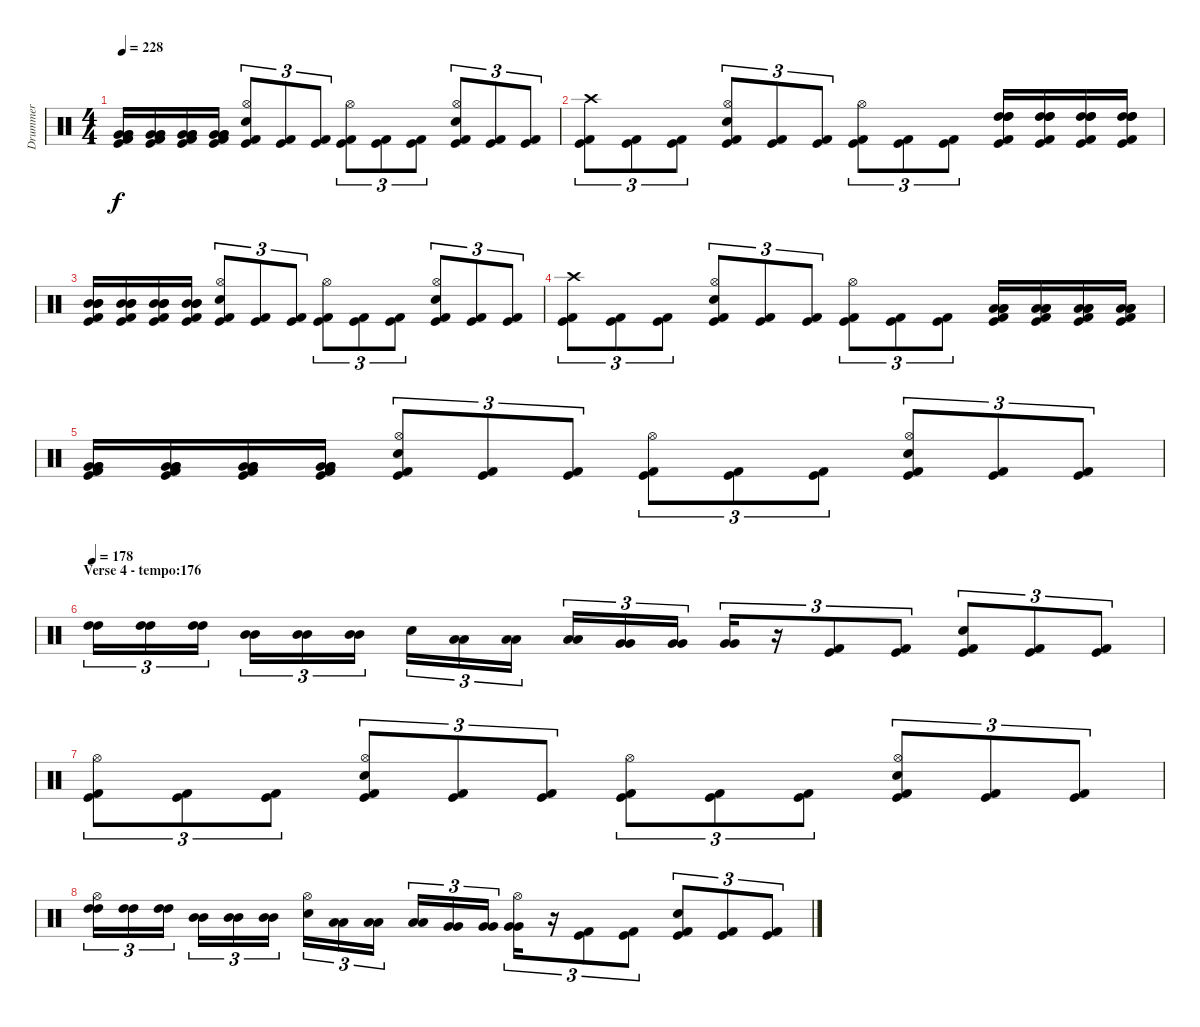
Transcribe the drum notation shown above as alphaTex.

\track ("Drummer" "Drummer") {instrument percussion}
\staff {score}
\articulation defaults
\ts (4 4)
\tempo 228
\clef neutral
\ks c
("Very Low Tom (hit)" "Very Low Tom (hit)" "Very Low Tom (hit)" "Kick (hit)" "Kick (hit) 2").16{dy f} ("Very Low Tom (hit)" "Very Low Tom (hit)" "Very Low Tom (hit)" "Kick (hit)" "Kick (hit) 2").16 ("Very Low Tom (hit)" "Very Low Tom (hit)" "Very Low Tom (hit)" "Kick (hit)" "Kick (hit) 2").16 ("Very Low Tom (hit)" "Very Low Tom (hit)" "Very Low Tom (hit)" "Kick (hit)" "Kick (hit) 2").16 ("Hi-Hat (open)" "Snare (hit) 2" "Kick (hit)" "Kick (hit) 2").8{tu (3 2)} ("Kick (hit)" "Kick (hit) 2").8{tu (3 2)} ("Kick (hit)" "Kick (hit) 2").8{tu (3 2)} ("Hi-Hat (open)" "Kick (hit)" "Kick (hit) 2").8{tu (3 2)} ("Kick (hit)" "Kick (hit) 2").8{tu (3 2)} ("Kick (hit)" "Kick (hit) 2").8{tu (3 2)} ("Hi-Hat (open)" "Snare (hit) 2" "Kick (hit)" "Kick (hit) 2").8{tu (3 2)} ("Kick (hit)" "Kick (hit) 2").8{tu (3 2)} ("Kick (hit)" "Kick (hit) 2").8{tu (3 2)} |
("Crash high (hit)" "Kick (hit)" "Kick (hit) 2").8{tu (3 2)} ("Kick (hit)" "Kick (hit) 2").8{tu (3 2)} ("Kick (hit)" "Kick (hit) 2").8{tu (3 2)} ("Hi-Hat (open)" "Snare (hit) 2" "Kick (hit)" "Kick (hit) 2").8{tu (3 2)} ("Kick (hit)" "Kick (hit) 2").8{tu (3 2)} ("Kick (hit)" "Kick (hit) 2").8{tu (3 2)} ("Hi-Hat (open)" "Kick (hit)" "Kick (hit) 2").8{tu (3 2)} ("Kick (hit)" "Kick (hit) 2").8{tu (3 2)} ("Kick (hit)" "Kick (hit) 2").8{tu (3 2)} ("High Tom (hit)" "High Tom (hit)" "High Tom (hit)" "Kick (hit)" "Kick (hit) 2").16 ("High Tom (hit)" "High Tom (hit)" "High Tom (hit)" "Kick (hit)" "Kick (hit) 2").16 ("High Tom (hit)" "High Tom (hit)" "High Tom (hit)" "Kick (hit)" "Kick (hit) 2").16 ("High Tom (hit)" "High Tom (hit)" "High Tom (hit)" "Kick (hit)" "Kick (hit) 2").16 |
("Mid Tom (hit)" "Mid Tom (hit)" "Mid Tom (hit)" "Kick (hit)" "Kick (hit) 2").16 ("Mid Tom (hit)" "Mid Tom (hit)" "Mid Tom (hit)" "Kick (hit)" "Kick (hit) 2").16 ("Mid Tom (hit)" "Mid Tom (hit)" "Mid Tom (hit)" "Kick (hit)" "Kick (hit) 2").16 ("Mid Tom (hit)" "Mid Tom (hit)" "Mid Tom (hit)" "Kick (hit)" "Kick (hit) 2").16 ("Hi-Hat (open)" "Snare (hit) 2" "Kick (hit)" "Kick (hit) 2").8{tu (3 2)} ("Kick (hit)" "Kick (hit) 2").8{tu (3 2)} ("Kick (hit)" "Kick (hit) 2").8{tu (3 2)} ("Hi-Hat (open)" "Kick (hit)" "Kick (hit) 2").8{tu (3 2)} ("Kick (hit)" "Kick (hit) 2").8{tu (3 2)} ("Kick (hit)" "Kick (hit) 2").8{tu (3 2)} ("Hi-Hat (open)" "Snare (hit) 2" "Kick (hit)" "Kick (hit) 2").8{tu (3 2)} ("Kick (hit)" "Kick (hit) 2").8{tu (3 2)} ("Kick (hit)" "Kick (hit) 2").8{tu (3 2)} |
("Crash high (hit)" "Kick (hit)" "Kick (hit) 2").8{tu (3 2)} ("Kick (hit)" "Kick (hit) 2").8{tu (3 2)} ("Kick (hit)" "Kick (hit) 2").8{tu (3 2)} ("Hi-Hat (open)" "Snare (hit) 2" "Kick (hit)" "Kick (hit) 2").8{tu (3 2)} ("Kick (hit)" "Kick (hit) 2").8{tu (3 2)} ("Kick (hit)" "Kick (hit) 2").8{tu (3 2)} ("Hi-Hat (open)" "Kick (hit)" "Kick (hit) 2").8{tu (3 2)} ("Kick (hit)" "Kick (hit) 2").8{tu (3 2)} ("Kick (hit)" "Kick (hit) 2").8{tu (3 2)} ("Low Tom (hit)" "Low Tom (hit)" "Low Tom (hit)" "Kick (hit)" "Kick (hit) 2").16 ("Low Tom (hit)" "Low Tom (hit)" "Low Tom (hit)" "Kick (hit)" "Kick (hit) 2").16 ("Low Tom (hit)" "Low Tom (hit)" "Low Tom (hit)" "Kick (hit)" "Kick (hit) 2").16 ("Low Tom (hit)" "Low Tom (hit)" "Low Tom (hit)" "Kick (hit)" "Kick (hit) 2").16 |
("Very Low Tom (hit)" "Very Low Tom (hit)" "Very Low Tom (hit)" "Kick (hit)" "Kick (hit) 2").16 ("Very Low Tom (hit)" "Very Low Tom (hit)" "Very Low Tom (hit)" "Kick (hit)" "Kick (hit) 2").16 ("Very Low Tom (hit)" "Very Low Tom (hit)" "Very Low Tom (hit)" "Kick (hit)" "Kick (hit) 2").16 ("Very Low Tom (hit)" "Very Low Tom (hit)" "Very Low Tom (hit)" "Kick (hit)" "Kick (hit) 2").16 ("Hi-Hat (open)" "Snare (hit) 2" "Kick (hit)" "Kick (hit) 2").8{tu (3 2)} ("Kick (hit)" "Kick (hit) 2").8{tu (3 2)} ("Kick (hit)" "Kick (hit) 2").8{tu (3 2)} ("Hi-Hat (open)" "Kick (hit)" "Kick (hit) 2").8{tu (3 2)} ("Kick (hit)" "Kick (hit) 2").8{tu (3 2)} ("Kick (hit)" "Kick (hit) 2").8{tu (3 2)} ("Hi-Hat (open)" "Snare (hit) 2" "Kick (hit)" "Kick (hit) 2").8{tu (3 2)} ("Kick (hit)" "Kick (hit) 2").8{tu (3 2)} ("Kick (hit)" "Kick (hit) 2").8{tu (3 2)} |
\section ("" "Verse 4 - tempo:176")
\tempo 178
("High Tom (hit)" "High Tom (hit)").16{tu (3 2)} ("High Tom (hit)" "High Tom (hit)").16{tu (3 2)} ("High Tom (hit)" "High Tom (hit)").16{tu (3 2)} ("Mid Tom (hit)" "Mid Tom (hit)").16{tu (3 2)} ("Mid Tom (hit)" "Mid Tom (hit)").16{tu (3 2)} ("Mid Tom (hit)" "Mid Tom (hit)").16{tu (3 2)} "Snare (hit) 2".16{tu (3 2)} ("Low Tom (hit)" "Low Tom (hit)").16{tu (3 2)} ("Low Tom (hit)" "Low Tom (hit)").16{tu (3 2)} ("Low Tom (hit)" "Low Tom (hit)").16{tu (3 2)} ("Very Low Tom (hit)" "Very Low Tom (hit)").16{tu (3 2)} ("Very Low Tom (hit)" "Very Low Tom (hit)").16{tu (3 2)} ("Very Low Tom (hit)" "Very Low Tom (hit)").16{tu (3 2)} r.16{tu (3 2)} ("Kick (hit)" "Kick (hit) 2").8{tu (3 2)} ("Kick (hit)" "Kick (hit) 2").8{tu (3 2)} ("Snare (hit) 2" "Kick (hit)" "Kick (hit) 2").8{tu (3 2)} ("Kick (hit)" "Kick (hit) 2").8{tu (3 2)} ("Kick (hit)" "Kick (hit) 2").8{tu (3 2)} |
("Hi-Hat (open)" "Kick (hit)" "Kick (hit) 2").8{tu (3 2)} ("Kick (hit)" "Kick (hit) 2").8{tu (3 2)} ("Kick (hit)" "Kick (hit) 2").8{tu (3 2)} ("Hi-Hat (open)" "Snare (hit) 2" "Kick (hit)" "Kick (hit) 2").8{tu (3 2)} ("Kick (hit)" "Kick (hit) 2").8{tu (3 2)} ("Kick (hit)" "Kick (hit) 2").8{tu (3 2)} ("Hi-Hat (open)" "Kick (hit)" "Kick (hit) 2").8{tu (3 2)} ("Kick (hit)" "Kick (hit) 2").8{tu (3 2)} ("Kick (hit)" "Kick (hit) 2").8{tu (3 2)} ("Hi-Hat (open)" "Snare (hit) 2" "Kick (hit)" "Kick (hit) 2").8{tu (3 2)} ("Kick (hit)" "Kick (hit) 2").8{tu (3 2)} ("Kick (hit)" "Kick (hit) 2").8{tu (3 2)} |
("Hi-Hat (open)" "High Tom (hit)" "High Tom (hit)").16{tu (3 2)} ("High Tom (hit)" "High Tom (hit)").16{tu (3 2)} ("High Tom (hit)" "High Tom (hit)").16{tu (3 2)} ("Mid Tom (hit)" "Mid Tom (hit)").16{tu (3 2)} ("Mid Tom (hit)" "Mid Tom (hit)").16{tu (3 2)} ("Mid Tom (hit)" "Mid Tom (hit)").16{tu (3 2)} ("Hi-Hat (open)" "Snare (hit) 2").16{tu (3 2)} ("Low Tom (hit)" "Low Tom (hit)").16{tu (3 2)} ("Low Tom (hit)" "Low Tom (hit)").16{tu (3 2)} ("Low Tom (hit)" "Low Tom (hit)").16{tu (3 2)} ("Very Low Tom (hit)" "Very Low Tom (hit)").16{tu (3 2)} ("Very Low Tom (hit)" "Very Low Tom (hit)").16{tu (3 2)} ("Hi-Hat (open)" "Very Low Tom (hit)" "Very Low Tom (hit)").16{tu (3 2)} r.16{tu (3 2)} ("Kick (hit)" "Kick (hit) 2").8{tu (3 2)} ("Kick (hit)" "Kick (hit) 2").8{tu (3 2)} ("Snare (hit) 2" "Kick (hit)" "Kick (hit) 2").8{tu (3 2)} ("Kick (hit)" "Kick (hit) 2").8{tu (3 2)} ("Kick (hit)" "Kick (hit) 2").8{tu (3 2)}
